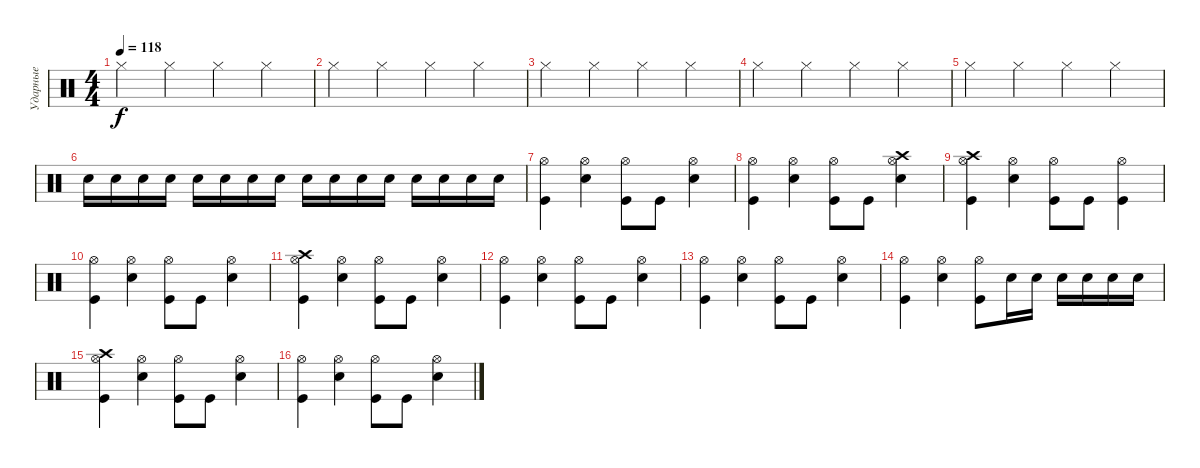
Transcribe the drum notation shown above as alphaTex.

\track ("Ударные" "Ударные") {instrument percussion}
\staff {score}
\articulation defaults
\ts (4 4)
\tempo 118
\clef neutral
\ks c "Hi-Hat (closed)".4{dy f} "Hi-Hat (closed)".4 "Hi-Hat (closed)".4 "Hi-Hat (closed)".4
|
"Hi-Hat (closed)".4 "Hi-Hat (closed)".4 "Hi-Hat (closed)".4 "Hi-Hat (closed)".4 |
"Hi-Hat (closed)".4 "Hi-Hat (closed)".4 "Hi-Hat (closed)".4 "Hi-Hat (closed)".4 |
"Hi-Hat (closed)".4 "Hi-Hat (closed)".4 "Hi-Hat (closed)".4 "Hi-Hat (closed)".4 |
"Hi-Hat (closed)".4 "Hi-Hat (closed)".4 "Hi-Hat (closed)".4 "Hi-Hat (closed)".4 |
"Snare (hit) 2".16 "Snare (hit) 2".16 "Snare (hit) 2".16 "Snare (hit) 2".16 "Snare (hit) 2".16 "Snare (hit) 2".16 "Snare (hit) 2".16 "Snare (hit) 2".16 "Snare (hit) 2".16 "Snare (hit) 2".16 "Snare (hit) 2".16 "Snare (hit) 2".16 "Snare (hit) 2".16 "Snare (hit) 2".16 "Snare (hit) 2".16 "Snare (hit) 2".16 |
("Hi-Hat (open)" "Kick (hit)").4 ("Hi-Hat (open)" "Snare (hit) 2").4 ("Hi-Hat (open)" "Kick (hit)").8 "Kick (hit)".8 ("Hi-Hat (open)" "Snare (hit) 2").4 |
("Hi-Hat (open)" "Kick (hit)").4 ("Hi-Hat (open)" "Snare (hit) 2").4 ("Hi-Hat (open)" "Kick (hit)").8 "Kick (hit)".8 ("Hi-Hat (open)" "Crash high (hit)" "Snare (hit) 2").4 |
("Hi-Hat (open)" "Crash high (hit)" "Kick (hit)").4 ("Hi-Hat (open)" "Snare (hit) 2").4 ("Hi-Hat (open)" "Kick (hit)").8 "Kick (hit)".8 ("Hi-Hat (open)" "Kick (hit)").4 |
("Hi-Hat (open)" "Kick (hit)").4 ("Hi-Hat (open)" "Snare (hit) 2").4 ("Hi-Hat (open)" "Kick (hit)").8 "Kick (hit)".8 ("Hi-Hat (open)" "Snare (hit) 2").4 |
("Hi-Hat (open)" "Crash high (hit)" "Kick (hit)").4 ("Hi-Hat (open)" "Snare (hit) 2").4 ("Hi-Hat (open)" "Kick (hit)").8 "Kick (hit)".8 ("Hi-Hat (open)" "Snare (hit) 2").4 |
("Hi-Hat (open)" "Kick (hit)").4 ("Hi-Hat (open)" "Snare (hit) 2").4 ("Hi-Hat (open)" "Kick (hit)").8 "Kick (hit)".8 ("Hi-Hat (open)" "Snare (hit) 2").4 |
("Hi-Hat (open)" "Kick (hit)").4 ("Hi-Hat (open)" "Snare (hit) 2").4 ("Hi-Hat (open)" "Kick (hit)").8 "Kick (hit)".8 ("Hi-Hat (open)" "Snare (hit) 2").4 |
("Hi-Hat (open)" "Kick (hit)").4 ("Hi-Hat (open)" "Snare (hit) 2").4 ("Hi-Hat (open)" "Kick (hit)").8 "Snare (hit) 2".16 "Snare (hit) 2".16 "Snare (hit) 2".16 "Snare (hit) 2".16 "Snare (hit) 2".16 "Snare (hit) 2".16 |
("Hi-Hat (open)" "Crash high (hit)" "Kick (hit)").4 ("Hi-Hat (open)" "Snare (hit) 2").4 ("Hi-Hat (open)" "Kick (hit)").8 "Kick (hit)".8 ("Hi-Hat (open)" "Snare (hit) 2").4 |
("Hi-Hat (open)" "Kick (hit)").4 ("Hi-Hat (open)" "Snare (hit) 2").4 ("Hi-Hat (open)" "Kick (hit)").8 "Kick (hit)".8 ("Hi-Hat (open)" "Snare (hit) 2").4
